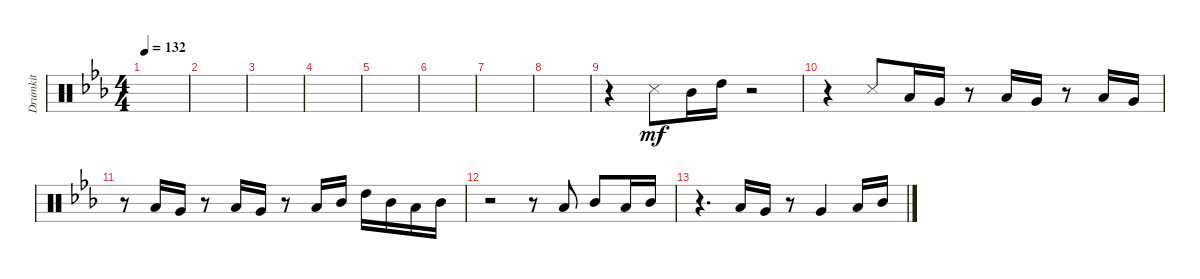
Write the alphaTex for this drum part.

\track ("Drumkit" "Drumkit") {instrument percussion}
\staff {score}
\articulation defaults
\ts (4 4)
\tempo 132
\clef neutral
\ks eb
|
|
|
|
|
|
|
|
r.4 "Snare (side stick) 3".8{dy mf} "Mid Tom (hit)".16 "High Tom (hit)".16 r.2 |
r.4 "Snare (side stick) 3".8 "Low Floor Tom (hit)".16 "Very Low Tom (hit)".16 r.8 "Low Floor Tom (hit)".16 "Very Low Tom (hit)".16 r.8 "Low Floor Tom (hit)".16 "Very Low Tom (hit)".16 |
r.8 "Low Floor Tom (hit)".16 "Very Low Tom (hit)".16 r.8 "Low Floor Tom (hit)".16 "Very Low Tom (hit)".16 r.8 "Low Tom (hit)".16 "Mid Tom (hit)".16 "High Tom (hit)".16 "Mid Tom (hit)".16 "Low Tom (hit)".16 "Mid Tom (hit)".16 |
r.2 r.8 "Low Tom (hit)".8 "Mid Tom (hit)".8 "Low Tom (hit)".16 "Mid Tom (hit)".16 |
r.4{d} "Low Tom (hit)".16 "Very Low Tom (hit)".16 r.8 "Very Low Tom (hit)".4 "Low Tom (hit)".16 "Mid Tom (hit)".16
